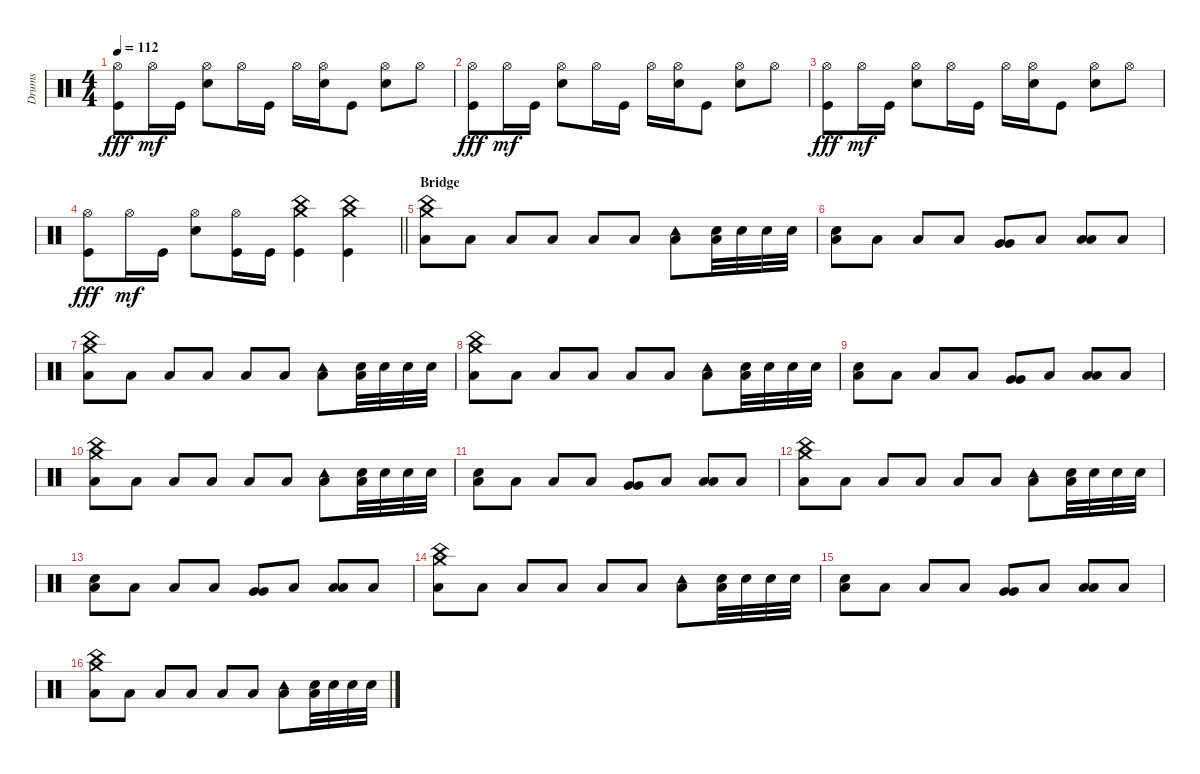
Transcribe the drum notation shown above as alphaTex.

\track ("Drums" "Drums") {instrument percussion}
\staff {score}
\articulation defaults
\ts (4 4)
\tempo 112
\clef neutral
\ks c
("Hi-Hat (open)" "Kick (hit)").8{dy fff} "Hi-Hat (open)".16{dy mf} "Kick (hit)".16 ("Hi-Hat (open)" "Electric Snare (hit)").8 "Hi-Hat (open)".16 "Kick (hit)".16 "Hi-Hat (open)".16 ("Hi-Hat (open)" "Electric Snare (hit)").16 "Kick (hit)".8 ("Hi-Hat (open)" "Electric Snare (hit)").8 "Hi-Hat (open)".8 |
("Hi-Hat (open)" "Kick (hit)").8{dy fff} "Hi-Hat (open)".16{dy mf} "Kick (hit)".16 ("Hi-Hat (open)" "Electric Snare (hit)").8 "Hi-Hat (open)".16 "Kick (hit)".16 "Hi-Hat (open)".16 ("Hi-Hat (open)" "Electric Snare (hit)").16 "Kick (hit)".8 ("Hi-Hat (open)" "Electric Snare (hit)").8 "Hi-Hat (open)".8 |
("Hi-Hat (open)" "Kick (hit)").8{dy fff} "Hi-Hat (open)".16{dy mf} "Kick (hit)".16 ("Hi-Hat (open)" "Electric Snare (hit)").8 "Hi-Hat (open)".16 "Kick (hit)".16 "Hi-Hat (open)".16 ("Hi-Hat (open)" "Electric Snare (hit)").16 "Kick (hit)".8 ("Hi-Hat (open)" "Electric Snare (hit)").8 "Hi-Hat (open)".8 |
\barLineRight lightlight
("Hi-Hat (open)" "Kick (hit)").8{dy fff} "Hi-Hat (open)".16{dy mf} "Kick (hit)".16 ("Hi-Hat (open)" "Electric Snare (hit)").8 ("Hi-Hat (open)" "Kick (hit)").16 "Kick (hit)".16 ("China (hit)" "Crash medium (hit)" "Kick (hit)").4 ("China (hit)" "Crash medium (hit)" "Kick (hit)").4 |
\section ("" "Bridge")
("China (hit)" "Crash medium (hit)" "Low Floor Tom (hit)").8 "Low Floor Tom (hit)".8 "Low Floor Tom (hit)".8 "Low Floor Tom (hit)".8 "Low Floor Tom (hit)".8 "Low Floor Tom (hit)".8 ("Tambourine (hit)" "Low Floor Tom (hit)").8 ("Low Floor Tom (hit)" "Electric Snare (hit)").32 "Electric Snare (hit)".32 "Electric Snare (hit)".32 "Electric Snare (hit)".32 |
("Low Floor Tom (hit)" "Electric Snare (hit)").8 "Low Floor Tom (hit)".8 "Low Floor Tom (hit)".8 "Low Floor Tom (hit)".8 ("Very Low Tom (hit)" "Very Low Tom (hit)").8 "Low Floor Tom (hit)".8 ("Low Floor Tom (hit)" "Low Floor Tom (hit)").8 "Low Floor Tom (hit)".8 |
("China (hit)" "Crash medium (hit)" "Low Floor Tom (hit)").8 "Low Floor Tom (hit)".8 "Low Floor Tom (hit)".8 "Low Floor Tom (hit)".8 "Low Floor Tom (hit)".8 "Low Floor Tom (hit)".8 ("Tambourine (hit)" "Low Floor Tom (hit)").8 ("Low Floor Tom (hit)" "Electric Snare (hit)").32 "Electric Snare (hit)".32 "Electric Snare (hit)".32 "Electric Snare (hit)".32 |
("China (hit)" "Crash medium (hit)" "Low Floor Tom (hit)").8 "Low Floor Tom (hit)".8 "Low Floor Tom (hit)".8 "Low Floor Tom (hit)".8 "Low Floor Tom (hit)".8 "Low Floor Tom (hit)".8 ("Tambourine (hit)" "Low Floor Tom (hit)").8 ("Low Floor Tom (hit)" "Electric Snare (hit)").32 "Electric Snare (hit)".32 "Electric Snare (hit)".32 "Electric Snare (hit)".32 |
("Low Floor Tom (hit)" "Electric Snare (hit)").8 "Low Floor Tom (hit)".8 "Low Floor Tom (hit)".8 "Low Floor Tom (hit)".8 ("Very Low Tom (hit)" "Very Low Tom (hit)").8 "Low Floor Tom (hit)".8 ("Low Floor Tom (hit)" "Low Floor Tom (hit)").8 "Low Floor Tom (hit)".8 |
("China (hit)" "Crash medium (hit)" "Low Floor Tom (hit)").8 "Low Floor Tom (hit)".8 "Low Floor Tom (hit)".8 "Low Floor Tom (hit)".8 "Low Floor Tom (hit)".8 "Low Floor Tom (hit)".8 ("Tambourine (hit)" "Low Floor Tom (hit)").8 ("Low Floor Tom (hit)" "Electric Snare (hit)").32 "Electric Snare (hit)".32 "Electric Snare (hit)".32 "Electric Snare (hit)".32 |
("Low Floor Tom (hit)" "Electric Snare (hit)").8 "Low Floor Tom (hit)".8 "Low Floor Tom (hit)".8 "Low Floor Tom (hit)".8 ("Very Low Tom (hit)" "Very Low Tom (hit)").8 "Low Floor Tom (hit)".8 ("Low Floor Tom (hit)" "Low Floor Tom (hit)").8 "Low Floor Tom (hit)".8 |
("China (hit)" "Crash medium (hit)" "Low Floor Tom (hit)").8 "Low Floor Tom (hit)".8 "Low Floor Tom (hit)".8 "Low Floor Tom (hit)".8 "Low Floor Tom (hit)".8 "Low Floor Tom (hit)".8 ("Tambourine (hit)" "Low Floor Tom (hit)").8 ("Low Floor Tom (hit)" "Electric Snare (hit)").32 "Electric Snare (hit)".32 "Electric Snare (hit)".32 "Electric Snare (hit)".32 |
("Low Floor Tom (hit)" "Electric Snare (hit)").8 "Low Floor Tom (hit)".8 "Low Floor Tom (hit)".8 "Low Floor Tom (hit)".8 ("Very Low Tom (hit)" "Very Low Tom (hit)").8 "Low Floor Tom (hit)".8 ("Low Floor Tom (hit)" "Low Floor Tom (hit)").8 "Low Floor Tom (hit)".8 |
("China (hit)" "Crash medium (hit)" "Low Floor Tom (hit)").8 "Low Floor Tom (hit)".8 "Low Floor Tom (hit)".8 "Low Floor Tom (hit)".8 "Low Floor Tom (hit)".8 "Low Floor Tom (hit)".8 ("Tambourine (hit)" "Low Floor Tom (hit)").8 ("Low Floor Tom (hit)" "Electric Snare (hit)").32 "Electric Snare (hit)".32 "Electric Snare (hit)".32 "Electric Snare (hit)".32 |
("Low Floor Tom (hit)" "Electric Snare (hit)").8 "Low Floor Tom (hit)".8 "Low Floor Tom (hit)".8 "Low Floor Tom (hit)".8 ("Very Low Tom (hit)" "Very Low Tom (hit)").8 "Low Floor Tom (hit)".8 ("Low Floor Tom (hit)" "Low Floor Tom (hit)").8 "Low Floor Tom (hit)".8 |
("China (hit)" "Crash medium (hit)" "Low Floor Tom (hit)").8 "Low Floor Tom (hit)".8 "Low Floor Tom (hit)".8 "Low Floor Tom (hit)".8 "Low Floor Tom (hit)".8 "Low Floor Tom (hit)".8 ("Tambourine (hit)" "Low Floor Tom (hit)").8 ("Low Floor Tom (hit)" "Electric Snare (hit)").32 "Electric Snare (hit)".32 "Electric Snare (hit)".32 "Electric Snare (hit)".32
